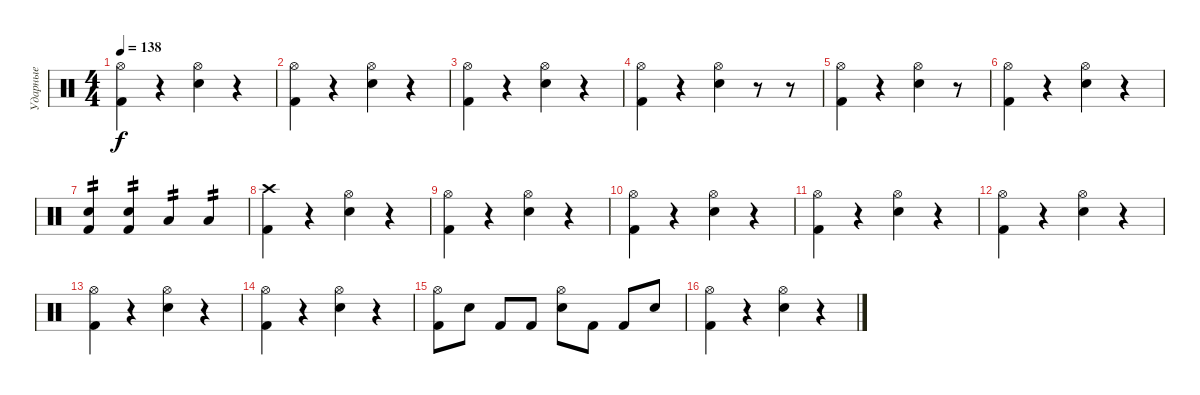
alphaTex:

\track ("Ударные" "Ударные") {instrument percussion}
\staff {score}
\articulation defaults
\ts (4 4)
\tempo 138
\clef neutral
\ks c
("Hi-Hat (open)" "Kick (hit) 2").4{dy f} r.4 ("Hi-Hat (open)" "Snare (hit) 2").4 r.4 |
("Hi-Hat (open)" "Kick (hit) 2").4 r.4 ("Hi-Hat (open)" "Snare (hit) 2").4 r.4 |
("Hi-Hat (open)" "Kick (hit) 2").4 r.4 ("Hi-Hat (open)" "Snare (hit) 2").4 r.4 |
("Hi-Hat (open)" "Kick (hit) 2").4 r.4 ("Hi-Hat (open)" "Snare (hit) 2").4 r.8 r.8 |
("Hi-Hat (open)" "Kick (hit) 2").4 r.4 ("Hi-Hat (open)" "Snare (hit) 2").4 r.8 |
("Hi-Hat (open)" "Kick (hit) 2").4 r.4 ("Hi-Hat (open)" "Snare (hit) 2").4 r.4 |
("Snare (hit) 2" "Kick (hit) 2").4{tp 2} ("Snare (hit) 2" "Kick (hit) 2").4{tp 2} "Low Tom (hit)".4{tp 2} "Low Floor Tom (hit)".4{tp 2} |
("Kick (hit) 2" "Crash high (hit)").4 r.4 ("Hi-Hat (open)" "Snare (hit) 2").4 r.4 |
("Hi-Hat (open)" "Kick (hit) 2").4 r.4 ("Hi-Hat (open)" "Snare (hit) 2").4 r.4 |
("Hi-Hat (open)" "Kick (hit) 2").4 r.4 ("Hi-Hat (open)" "Snare (hit) 2").4 r.4 |
("Hi-Hat (open)" "Kick (hit) 2").4 r.4 ("Hi-Hat (open)" "Snare (hit) 2").4 r.4 |
("Hi-Hat (open)" "Kick (hit) 2").4 r.4 ("Hi-Hat (open)" "Snare (hit) 2").4 r.4 |
("Hi-Hat (open)" "Kick (hit) 2").4 r.4 ("Hi-Hat (open)" "Snare (hit) 2").4 r.4 |
("Hi-Hat (open)" "Kick (hit) 2").4 r.4 ("Hi-Hat (open)" "Snare (hit) 2").4 r.4 |
("Hi-Hat (open)" "Kick (hit) 2").8 "Snare (hit) 2".8 "Kick (hit) 2".8 "Kick (hit) 2".8 ("Hi-Hat (open)" "Snare (hit) 2").8 "Kick (hit) 2".8 "Kick (hit) 2".8 "Snare (hit) 2".8 |
("Hi-Hat (open)" "Kick (hit) 2").4 r.4 ("Hi-Hat (open)" "Snare (hit) 2").4 r.4
